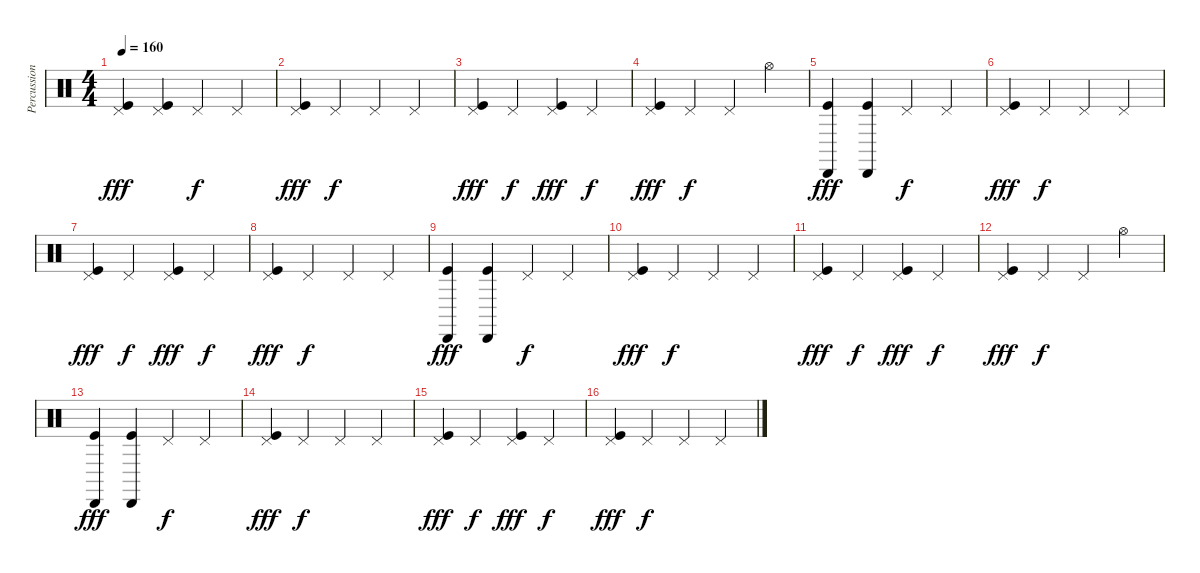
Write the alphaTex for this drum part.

\track ("Percussion" "Percussion") {solo instrument percussion}
\staff {score}
\articulation defaults
\ts (4 4)
\tempo 160
\clef neutral
\ks c
("Pedal Hi-Hat (hit)" "Kick (hit)").4{dy fff} ("Pedal Hi-Hat (hit)" "Kick (hit)").4 "Pedal Hi-Hat (hit)".4{dy f} "Pedal Hi-Hat (hit)".4 |
("Pedal Hi-Hat (hit)" "Kick (hit)").4{dy fff} "Pedal Hi-Hat (hit)".4{dy f} "Pedal Hi-Hat (hit)".4 "Pedal Hi-Hat (hit)".4 |
("Pedal Hi-Hat (hit)" "Kick (hit)").4{dy fff} "Pedal Hi-Hat (hit)".4{dy f} ("Pedal Hi-Hat (hit)" "Kick (hit)").4{dy fff} "Pedal Hi-Hat (hit)".4{dy f} |
("Pedal Hi-Hat (hit)" "Kick (hit)").4{dy fff} "Pedal Hi-Hat (hit)".4{dy f} "Pedal Hi-Hat (hit)".4 "Hi-Hat (open)".4 |
("Kick (hit)" "Cabasa (hit)").4{dy fff} ("Kick (hit)" "Cabasa (hit)").4 "Pedal Hi-Hat (hit)".4{dy f} "Pedal Hi-Hat (hit)".4 |
("Pedal Hi-Hat (hit)" "Kick (hit)").4{dy fff} "Pedal Hi-Hat (hit)".4{dy f} "Pedal Hi-Hat (hit)".4 "Pedal Hi-Hat (hit)".4 |
("Pedal Hi-Hat (hit)" "Kick (hit)").4{dy fff} "Pedal Hi-Hat (hit)".4{dy f} ("Pedal Hi-Hat (hit)" "Kick (hit)").4{dy fff} "Pedal Hi-Hat (hit)".4{dy f} |
("Pedal Hi-Hat (hit)" "Kick (hit)").4{dy fff} "Pedal Hi-Hat (hit)".4{dy f} "Pedal Hi-Hat (hit)".4 "Pedal Hi-Hat (hit)".4 |
("Kick (hit)" "Cabasa (hit)").4{dy fff} ("Kick (hit)" "Cabasa (hit)").4 "Pedal Hi-Hat (hit)".4{dy f} "Pedal Hi-Hat (hit)".4 |
("Pedal Hi-Hat (hit)" "Kick (hit)").4{dy fff} "Pedal Hi-Hat (hit)".4{dy f} "Pedal Hi-Hat (hit)".4 "Pedal Hi-Hat (hit)".4 |
("Pedal Hi-Hat (hit)" "Kick (hit)").4{dy fff} "Pedal Hi-Hat (hit)".4{dy f} ("Pedal Hi-Hat (hit)" "Kick (hit)").4{dy fff} "Pedal Hi-Hat (hit)".4{dy f} |
("Pedal Hi-Hat (hit)" "Kick (hit)").4{dy fff} "Pedal Hi-Hat (hit)".4{dy f} "Pedal Hi-Hat (hit)".4 "Hi-Hat (open)".4 |
("Kick (hit)" "Cabasa (hit)").4{dy fff} ("Kick (hit)" "Cabasa (hit)").4 "Pedal Hi-Hat (hit)".4{dy f} "Pedal Hi-Hat (hit)".4 |
("Pedal Hi-Hat (hit)" "Kick (hit)").4{dy fff} "Pedal Hi-Hat (hit)".4{dy f} "Pedal Hi-Hat (hit)".4 "Pedal Hi-Hat (hit)".4 |
("Pedal Hi-Hat (hit)" "Kick (hit)").4{dy fff} "Pedal Hi-Hat (hit)".4{dy f} ("Pedal Hi-Hat (hit)" "Kick (hit)").4{dy fff} "Pedal Hi-Hat (hit)".4{dy f} |
("Pedal Hi-Hat (hit)" "Kick (hit)").4{dy fff} "Pedal Hi-Hat (hit)".4{dy f} "Pedal Hi-Hat (hit)".4 "Pedal Hi-Hat (hit)".4
